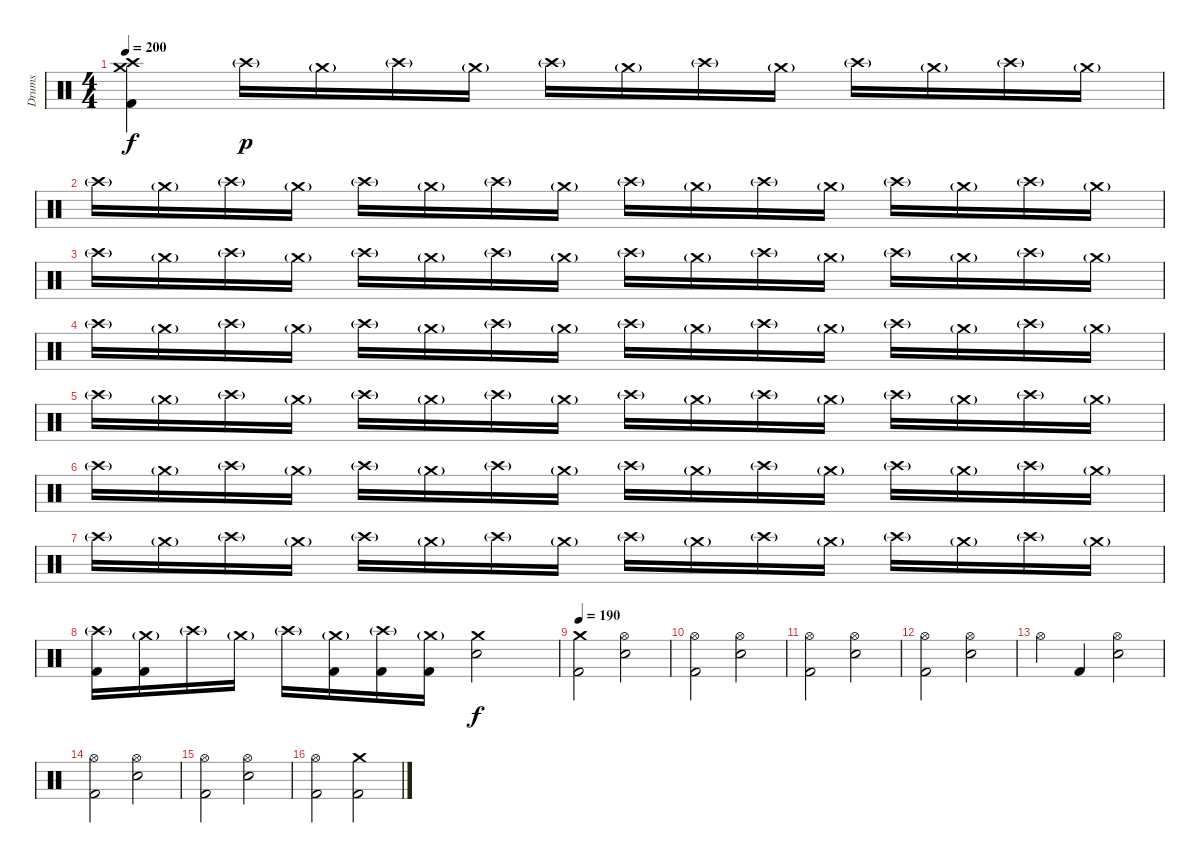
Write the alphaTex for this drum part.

\track ("Drums" "Drums") {instrument percussion}
\staff {score}
\articulation defaults
\ts (4 4)
\tempo 200
\clef neutral
\ks c
("Crash medium (hit)" "Crash high (hit)" "Kick (hit) 2").4{dy f} "Crash high (hit)"{g}.16{dy p} "Crash medium (hit)"{g}.16 "Crash high (hit)"{g}.16 "Crash medium (hit)"{g}.16 "Crash high (hit)"{g}.16 "Crash medium (hit)"{g}.16 "Crash high (hit)"{g}.16 "Crash medium (hit)"{g}.16 "Crash high (hit)"{g}.16 "Crash medium (hit)"{g}.16 "Crash high (hit)"{g}.16 "Crash medium (hit)"{g}.16 |
"Crash high (hit)"{g}.16 "Crash medium (hit)"{g}.16 "Crash high (hit)"{g}.16 "Crash medium (hit)"{g}.16 "Crash high (hit)"{g}.16 "Crash medium (hit)"{g}.16 "Crash high (hit)"{g}.16 "Crash medium (hit)"{g}.16 "Crash high (hit)"{g}.16 "Crash medium (hit)"{g}.16 "Crash high (hit)"{g}.16 "Crash medium (hit)"{g}.16 "Crash high (hit)"{g}.16 "Crash medium (hit)"{g}.16 "Crash high (hit)"{g}.16 "Crash medium (hit)"{g}.16 |
"Crash high (hit)"{g}.16 "Crash medium (hit)"{g}.16 "Crash high (hit)"{g}.16 "Crash medium (hit)"{g}.16 "Crash high (hit)"{g}.16 "Crash medium (hit)"{g}.16 "Crash high (hit)"{g}.16 "Crash medium (hit)"{g}.16 "Crash high (hit)"{g}.16 "Crash medium (hit)"{g}.16 "Crash high (hit)"{g}.16 "Crash medium (hit)"{g}.16 "Crash high (hit)"{g}.16 "Crash medium (hit)"{g}.16 "Crash high (hit)"{g}.16 "Crash medium (hit)"{g}.16 |
"Crash high (hit)"{g}.16 "Crash medium (hit)"{g}.16 "Crash high (hit)"{g}.16 "Crash medium (hit)"{g}.16 "Crash high (hit)"{g}.16 "Crash medium (hit)"{g}.16 "Crash high (hit)"{g}.16 "Crash medium (hit)"{g}.16 "Crash high (hit)"{g}.16 "Crash medium (hit)"{g}.16 "Crash high (hit)"{g}.16 "Crash medium (hit)"{g}.16 "Crash high (hit)"{g}.16 "Crash medium (hit)"{g}.16 "Crash high (hit)"{g}.16 "Crash medium (hit)"{g}.16 |
"Crash high (hit)"{g}.16 "Crash medium (hit)"{g}.16 "Crash high (hit)"{g}.16 "Crash medium (hit)"{g}.16 "Crash high (hit)"{g}.16 "Crash medium (hit)"{g}.16 "Crash high (hit)"{g}.16 "Crash medium (hit)"{g}.16 "Crash high (hit)"{g}.16 "Crash medium (hit)"{g}.16 "Crash high (hit)"{g}.16 "Crash medium (hit)"{g}.16 "Crash high (hit)"{g}.16 "Crash medium (hit)"{g}.16 "Crash high (hit)"{g}.16 "Crash medium (hit)"{g}.16 |
"Crash high (hit)"{g}.16 "Crash medium (hit)"{g}.16 "Crash high (hit)"{g}.16 "Crash medium (hit)"{g}.16 "Crash high (hit)"{g}.16 "Crash medium (hit)"{g}.16 "Crash high (hit)"{g}.16 "Crash medium (hit)"{g}.16 "Crash high (hit)"{g}.16 "Crash medium (hit)"{g}.16 "Crash high (hit)"{g}.16 "Crash medium (hit)"{g}.16 "Crash high (hit)"{g}.16 "Crash medium (hit)"{g}.16 "Crash high (hit)"{g}.16 "Crash medium (hit)"{g}.16 |
"Crash high (hit)"{g}.16 "Crash medium (hit)"{g}.16 "Crash high (hit)"{g}.16 "Crash medium (hit)"{g}.16 "Crash high (hit)"{g}.16 "Crash medium (hit)"{g}.16 "Crash high (hit)"{g}.16 "Crash medium (hit)"{g}.16 "Crash high (hit)"{g}.16 "Crash medium (hit)"{g}.16 "Crash high (hit)"{g}.16 "Crash medium (hit)"{g}.16 "Crash high (hit)"{g}.16 "Crash medium (hit)"{g}.16 "Crash high (hit)"{g}.16 "Crash medium (hit)"{g}.16 |
("Crash high (hit)"{g} "Kick (hit) 2").16 ("Crash medium (hit)"{g} "Kick (hit) 2").16 "Crash high (hit)"{g}.16 "Crash medium (hit)"{g}.16 "Crash high (hit)"{g}.16 ("Crash medium (hit)"{g} "Kick (hit) 2").16 ("Crash high (hit)"{g} "Kick (hit) 2").16 ("Crash medium (hit)"{g} "Kick (hit) 2").16 ("Crash medium (hit)" "Electric Snare (hit)").2{dy f} |
\tempo 190
("Crash medium (hit)" "Kick (hit) 2").2 ("Hi-Hat (open)" "Electric Snare (hit)").2 |
("Hi-Hat (open)" "Kick (hit) 2").2 ("Hi-Hat (open)" "Electric Snare (hit)").2 |
("Hi-Hat (open)" "Kick (hit) 2").2 ("Hi-Hat (open)" "Electric Snare (hit)").2 |
("Hi-Hat (open)" "Kick (hit) 2").2 ("Hi-Hat (open)" "Electric Snare (hit)").2 |
"Hi-Hat (open)".4 "Kick (hit) 2".4 ("Hi-Hat (open)" "Electric Snare (hit)").2 |
("Hi-Hat (open)" "Kick (hit) 2").2 ("Hi-Hat (open)" "Electric Snare (hit)").2 |
("Hi-Hat (open)" "Kick (hit) 2").2 ("Hi-Hat (open)" "Electric Snare (hit)").2 |
("Hi-Hat (open)" "Kick (hit) 2").2 ("Crash medium (hit)" "Kick (hit) 2").2
